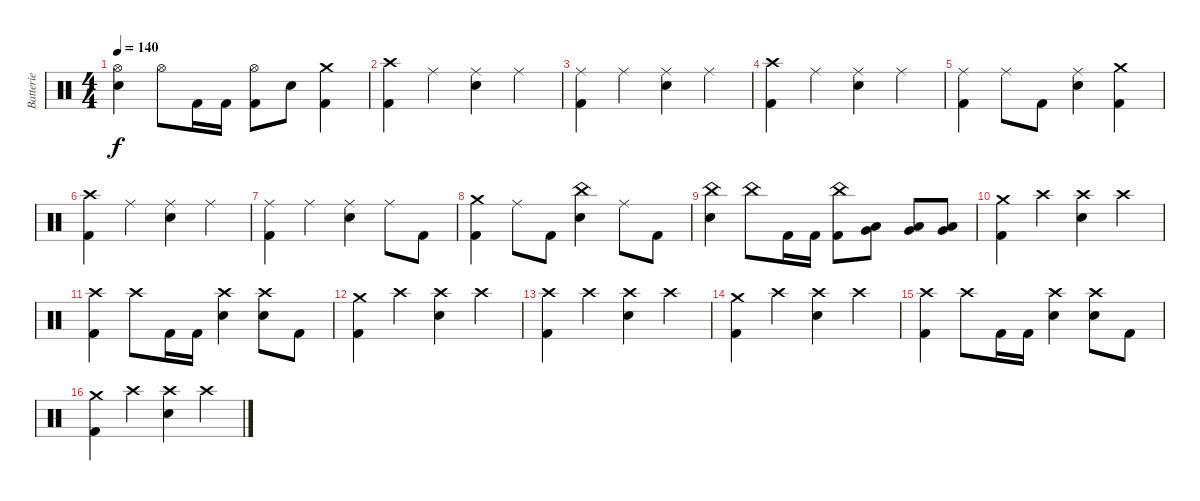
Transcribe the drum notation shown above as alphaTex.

\track ("Batterie" "Batterie") {instrument percussion}
\staff {score}
\articulation defaults
\ts (4 4)
\tempo 140
\clef neutral
\ks c
("Hi-Hat (open)" "Electric Snare (hit)").4{dy f} "Hi-Hat (open)".8 "Kick (hit) 2".16 "Kick (hit) 2".16 ("Hi-Hat (open)" "Kick (hit) 2").8 "Electric Snare (hit)".8 ("Crash medium (hit)" "Kick (hit) 2").4 |
("Crash high (hit)" "Kick (hit) 2").4 "Ride (middle)".4 ("Ride (middle)" "Electric Snare (hit)").4 "Ride (middle)".4 |
("Ride (middle)" "Kick (hit) 2").4 "Ride (middle)".4 ("Ride (middle)" "Electric Snare (hit)").4 "Ride (middle)".4 |
("Crash high (hit)" "Kick (hit) 2").4 "Ride (middle)".4 ("Ride (middle)" "Electric Snare (hit)").4 "Ride (middle)".4 |
("Ride (middle)" "Kick (hit) 2").4 "Ride (middle)".8 "Kick (hit) 2".8 ("Ride (middle)" "Electric Snare (hit)").4 ("Crash medium (hit)" "Kick (hit) 2").4 |
("Crash high (hit)" "Kick (hit) 2").4 "Ride (middle)".4 ("Ride (middle)" "Electric Snare (hit)").4 "Ride (middle)".4 |
("Ride (middle)" "Kick (hit) 2").4 "Ride (middle)".4 ("Ride (middle)" "Electric Snare (hit)").4 "Ride (middle)".8 "Kick (hit) 2".8 |
("Crash medium (hit)" "Kick (hit) 2").4 "Ride (middle)".8 "Kick (hit) 2".8 ("China (hit)" "Electric Snare (hit)").4 "Ride (middle)".8 "Kick (hit) 2".8 |
("China (hit)" "Electric Snare (hit)").4 "China (hit)".8 "Kick (hit) 2".16 "Kick (hit) 2".16 ("China (hit)" "Kick (hit) 2").8 ("Low Tom (hit)" "Very Low Tom (hit)").8{bu 60} ("Very Low Tom (hit)" "Low Floor Tom (hit)").8{bu 60} ("Very Low Tom (hit)" "Low Floor Tom (hit)").8{bu 60} |
("Crash medium (hit)" "Kick (hit) 2").4 "Crash high (hit)".4 ("Crash high (hit)" "Electric Snare (hit)").4 "Crash high (hit)".4 |
("Crash high (hit)" "Kick (hit) 2").4 "Crash high (hit)".8 "Kick (hit) 2".16 "Kick (hit) 2".16 ("Crash high (hit)" "Electric Snare (hit)").4 ("Crash high (hit)" "Electric Snare (hit)").8 "Kick (hit) 2".8 |
("Crash medium (hit)" "Kick (hit) 2").4 "Crash high (hit)".4 ("Crash high (hit)" "Electric Snare (hit)").4 "Crash high (hit)".4 |
("Crash high (hit)" "Kick (hit) 2").4 "Crash high (hit)".4 ("Crash high (hit)" "Electric Snare (hit)").4 "Crash high (hit)".4 |
("Crash medium (hit)" "Kick (hit) 2").4 "Crash high (hit)".4 ("Crash high (hit)" "Electric Snare (hit)").4 "Crash high (hit)".4 |
("Crash high (hit)" "Kick (hit) 2").4 "Crash high (hit)".8 "Kick (hit) 2".16 "Kick (hit) 2".16 ("Crash high (hit)" "Electric Snare (hit)").4 ("Crash high (hit)" "Electric Snare (hit)").8 "Kick (hit) 2".8 |
("Crash medium (hit)" "Kick (hit) 2").4 "Crash high (hit)".4 ("Crash high (hit)" "Electric Snare (hit)").4 "Crash high (hit)".4
